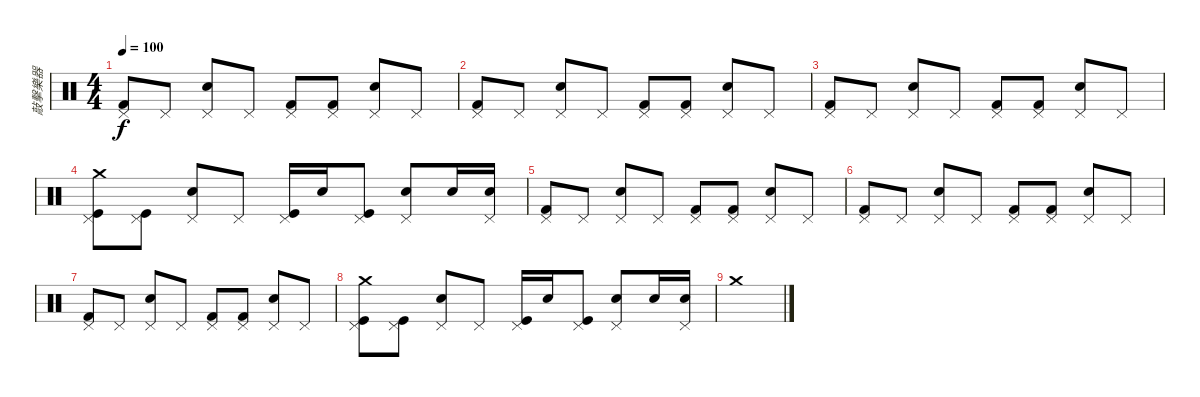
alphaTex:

\track ("敲擊樂器" "敲擊樂器") {instrument percussion}
\staff {score}
\articulation defaults
\ts (4 4)
\tempo 100
\clef neutral
\ks c
("Kick (hit) 2" "Pedal Hi-Hat (hit)").8{dy f} "Pedal Hi-Hat (hit)".8 ("Electric Snare (hit)" "Pedal Hi-Hat (hit)").8 "Pedal Hi-Hat (hit)".8 ("Kick (hit) 2" "Pedal Hi-Hat (hit)").8 ("Kick (hit) 2" "Pedal Hi-Hat (hit)").8 ("Electric Snare (hit)" "Pedal Hi-Hat (hit)").8 "Pedal Hi-Hat (hit)".8 |
("Kick (hit) 2" "Pedal Hi-Hat (hit)").8 "Pedal Hi-Hat (hit)".8 ("Electric Snare (hit)" "Pedal Hi-Hat (hit)").8 "Pedal Hi-Hat (hit)".8 ("Kick (hit) 2" "Pedal Hi-Hat (hit)").8 ("Kick (hit) 2" "Pedal Hi-Hat (hit)").8 ("Electric Snare (hit)" "Pedal Hi-Hat (hit)").8 "Pedal Hi-Hat (hit)".8 |
("Kick (hit) 2" "Pedal Hi-Hat (hit)").8 "Pedal Hi-Hat (hit)".8 ("Electric Snare (hit)" "Pedal Hi-Hat (hit)").8 "Pedal Hi-Hat (hit)".8 ("Kick (hit) 2" "Pedal Hi-Hat (hit)").8 ("Kick (hit) 2" "Pedal Hi-Hat (hit)").8 ("Electric Snare (hit)" "Pedal Hi-Hat (hit)").8 "Pedal Hi-Hat (hit)".8 |
("Pedal Hi-Hat (hit)" "Kick (hit)" "Crash medium (hit)").8 ("Pedal Hi-Hat (hit)" "Kick (hit)").8 ("Pedal Hi-Hat (hit)" "Electric Snare (hit)").8 "Pedal Hi-Hat (hit)".8 ("Pedal Hi-Hat (hit)" "Kick (hit)").16 "Electric Snare (hit)".16 ("Pedal Hi-Hat (hit)" "Kick (hit)").8 ("Pedal Hi-Hat (hit)" "Electric Snare (hit)").8 "Electric Snare (hit)".16 ("Pedal Hi-Hat (hit)" "Electric Snare (hit)").16 |
("Kick (hit) 2" "Pedal Hi-Hat (hit)").8 "Pedal Hi-Hat (hit)".8 ("Electric Snare (hit)" "Pedal Hi-Hat (hit)").8 "Pedal Hi-Hat (hit)".8 ("Kick (hit) 2" "Pedal Hi-Hat (hit)").8 ("Kick (hit) 2" "Pedal Hi-Hat (hit)").8 ("Electric Snare (hit)" "Pedal Hi-Hat (hit)").8 "Pedal Hi-Hat (hit)".8 |
("Kick (hit) 2" "Pedal Hi-Hat (hit)").8 "Pedal Hi-Hat (hit)".8 ("Electric Snare (hit)" "Pedal Hi-Hat (hit)").8 "Pedal Hi-Hat (hit)".8 ("Kick (hit) 2" "Pedal Hi-Hat (hit)").8 ("Kick (hit) 2" "Pedal Hi-Hat (hit)").8 ("Electric Snare (hit)" "Pedal Hi-Hat (hit)").8 "Pedal Hi-Hat (hit)".8 |
("Kick (hit) 2" "Pedal Hi-Hat (hit)").8 "Pedal Hi-Hat (hit)".8 ("Electric Snare (hit)" "Pedal Hi-Hat (hit)").8 "Pedal Hi-Hat (hit)".8 ("Kick (hit) 2" "Pedal Hi-Hat (hit)").8 ("Kick (hit) 2" "Pedal Hi-Hat (hit)").8 ("Electric Snare (hit)" "Pedal Hi-Hat (hit)").8 "Pedal Hi-Hat (hit)".8 |
("Pedal Hi-Hat (hit)" "Kick (hit)" "Crash medium (hit)").8 ("Pedal Hi-Hat (hit)" "Kick (hit)").8 ("Pedal Hi-Hat (hit)" "Electric Snare (hit)").8 "Pedal Hi-Hat (hit)".8 ("Pedal Hi-Hat (hit)" "Kick (hit)").16 "Electric Snare (hit)".16 ("Pedal Hi-Hat (hit)" "Kick (hit)").8 ("Pedal Hi-Hat (hit)" "Electric Snare (hit)").8 "Electric Snare (hit)".16 ("Pedal Hi-Hat (hit)" "Electric Snare (hit)").16 |
"Crash medium (hit)".1
